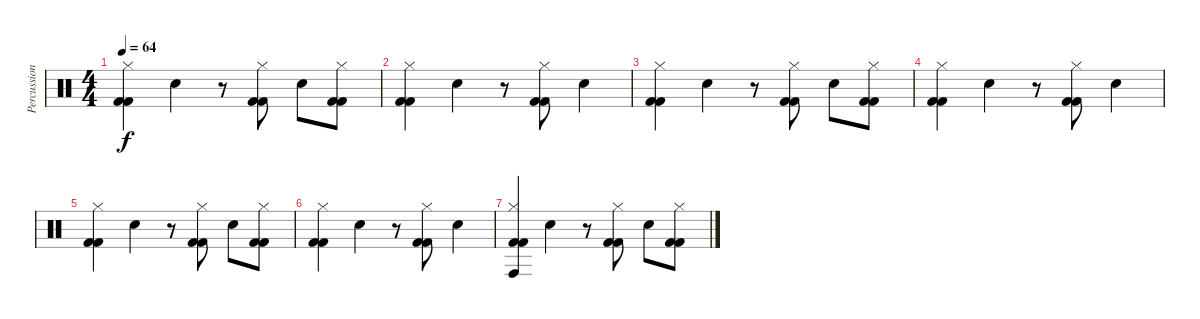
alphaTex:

\track ("Percussions" "Percussion") {instrument percussion}
\staff {score}
\articulation defaults
\ts (4 4)
\tempo 64
\clef neutral
\ks c
("Kick (hit) 2" "Hi-Hat (closed)" "Kick (hit) 2").4{dy f} "Hand Clap (hit)".4 r.8 ("Kick (hit) 2" "Hi-Hat (closed)" "Kick (hit) 2").8 "Hand Clap (hit)".8 ("Kick (hit) 2" "Hi-Hat (closed)" "Kick (hit) 2").8 |
("Kick (hit) 2" "Hi-Hat (closed)" "Kick (hit) 2").4 "Hand Clap (hit)".4 r.8 ("Kick (hit) 2" "Hi-Hat (closed)" "Kick (hit) 2").8 "Hand Clap (hit)".4 |
("Kick (hit) 2" "Hi-Hat (closed)" "Kick (hit) 2").4 "Hand Clap (hit)".4 r.8 ("Kick (hit) 2" "Hi-Hat (closed)" "Kick (hit) 2").8 "Hand Clap (hit)".8 ("Kick (hit) 2" "Hi-Hat (closed)" "Kick (hit) 2").8 |
("Kick (hit) 2" "Hi-Hat (closed)" "Kick (hit) 2").4 "Hand Clap (hit)".4 r.8 ("Kick (hit) 2" "Hi-Hat (closed)" "Kick (hit) 2").8 "Hand Clap (hit)".4 |
("Kick (hit) 2" "Hi-Hat (closed)" "Kick (hit) 2").4 "Hand Clap (hit)".4 r.8 ("Kick (hit) 2" "Hi-Hat (closed)" "Kick (hit) 2").8 "Hand Clap (hit)".8 ("Kick (hit) 2" "Hi-Hat (closed)" "Kick (hit) 2").8 |
("Kick (hit) 2" "Hi-Hat (closed)" "Kick (hit) 2").4 "Hand Clap (hit)".4 r.8 ("Kick (hit) 2" "Hi-Hat (closed)" "Kick (hit) 2").8 "Hand Clap (hit)".4 |
("Conga high (hit)" "Kick (hit) 2" "Hi-Hat (closed)" "Kick (hit) 2").4 "Hand Clap (hit)".4 r.8 ("Kick (hit) 2" "Hi-Hat (closed)" "Kick (hit) 2").8 "Hand Clap (hit)".8 ("Kick (hit) 2" "Hi-Hat (closed)" "Kick (hit) 2").8
